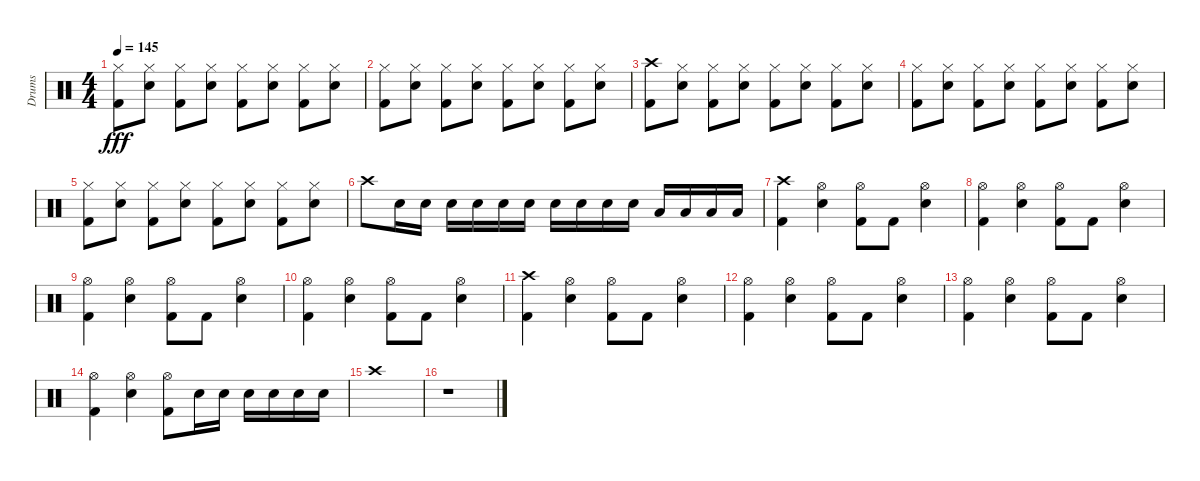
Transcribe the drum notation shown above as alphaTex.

\track ("Drums" "Drums") {instrument percussion}
\staff {score}
\articulation defaults
\ts (4 4)
\tempo 145
\clef neutral
\ks c
("Hi-Hat (closed)" "Kick (hit) 2").8{dy fff} ("Hi-Hat (closed)" "Electric Snare (hit)").8 ("Hi-Hat (closed)" "Kick (hit) 2").8 ("Hi-Hat (closed)" "Electric Snare (hit)").8 ("Hi-Hat (closed)" "Kick (hit) 2").8 ("Hi-Hat (closed)" "Electric Snare (hit)").8 ("Hi-Hat (closed)" "Kick (hit) 2").8 ("Hi-Hat (closed)" "Electric Snare (hit)").8 |
("Hi-Hat (closed)" "Kick (hit) 2").8 ("Hi-Hat (closed)" "Electric Snare (hit)").8 ("Hi-Hat (closed)" "Kick (hit) 2").8 ("Hi-Hat (closed)" "Electric Snare (hit)").8 ("Hi-Hat (closed)" "Kick (hit) 2").8 ("Hi-Hat (closed)" "Electric Snare (hit)").8 ("Hi-Hat (closed)" "Kick (hit) 2").8 ("Hi-Hat (closed)" "Electric Snare (hit)").8 |
("Crash high (hit)" "Kick (hit) 2").8 ("Hi-Hat (closed)" "Electric Snare (hit)").8 ("Hi-Hat (closed)" "Kick (hit) 2").8 ("Hi-Hat (closed)" "Electric Snare (hit)").8 ("Hi-Hat (closed)" "Kick (hit) 2").8 ("Hi-Hat (closed)" "Electric Snare (hit)").8 ("Hi-Hat (closed)" "Kick (hit) 2").8 ("Hi-Hat (closed)" "Electric Snare (hit)").8 |
("Hi-Hat (closed)" "Kick (hit) 2").8 ("Hi-Hat (closed)" "Electric Snare (hit)").8 ("Hi-Hat (closed)" "Kick (hit) 2").8 ("Hi-Hat (closed)" "Electric Snare (hit)").8 ("Hi-Hat (closed)" "Kick (hit) 2").8 ("Hi-Hat (closed)" "Electric Snare (hit)").8 ("Hi-Hat (closed)" "Kick (hit) 2").8 ("Hi-Hat (closed)" "Electric Snare (hit)").8 |
("Hi-Hat (closed)" "Kick (hit) 2").8 ("Hi-Hat (closed)" "Electric Snare (hit)").8 ("Hi-Hat (closed)" "Kick (hit) 2").8 ("Hi-Hat (closed)" "Electric Snare (hit)").8 ("Hi-Hat (closed)" "Kick (hit) 2").8 ("Hi-Hat (closed)" "Electric Snare (hit)").8 ("Hi-Hat (closed)" "Kick (hit) 2").8 ("Hi-Hat (closed)" "Electric Snare (hit)").8 |
"Crash high (hit)".8 "Electric Snare (hit)".16 "Electric Snare (hit)".16 "Electric Snare (hit)".16 "Electric Snare (hit)".16 "Electric Snare (hit)".16 "Electric Snare (hit)".16 "Electric Snare (hit)".16 "Electric Snare (hit)".16 "Electric Snare (hit)".16 "Electric Snare (hit)".16 "Low Tom (hit)".16 "Low Tom (hit)".16 "Low Tom (hit)".16 "Low Tom (hit)".16 |
("Crash high (hit)" "Kick (hit) 2").4 ("Hi-Hat (open)" "Electric Snare (hit)").4 ("Hi-Hat (open)" "Kick (hit) 2").8 "Kick (hit) 2".8 ("Hi-Hat (open)" "Electric Snare (hit)").4 |
("Hi-Hat (open)" "Kick (hit) 2").4 ("Hi-Hat (open)" "Electric Snare (hit)").4 ("Hi-Hat (open)" "Kick (hit) 2").8 "Kick (hit) 2".8 ("Hi-Hat (open)" "Electric Snare (hit)").4 |
("Hi-Hat (open)" "Kick (hit) 2").4 ("Hi-Hat (open)" "Electric Snare (hit)").4 ("Hi-Hat (open)" "Kick (hit) 2").8 "Kick (hit) 2".8 ("Hi-Hat (open)" "Electric Snare (hit)").4 |
("Hi-Hat (open)" "Kick (hit) 2").4 ("Hi-Hat (open)" "Electric Snare (hit)").4 ("Hi-Hat (open)" "Kick (hit) 2").8 "Kick (hit) 2".8 ("Hi-Hat (open)" "Electric Snare (hit)").4 |
("Crash high (hit)" "Kick (hit) 2").4 ("Hi-Hat (open)" "Electric Snare (hit)").4 ("Hi-Hat (open)" "Kick (hit) 2").8 "Kick (hit) 2".8 ("Hi-Hat (open)" "Electric Snare (hit)").4 |
("Hi-Hat (open)" "Kick (hit) 2").4 ("Hi-Hat (open)" "Electric Snare (hit)").4 ("Hi-Hat (open)" "Kick (hit) 2").8 "Kick (hit) 2".8 ("Hi-Hat (open)" "Electric Snare (hit)").4 |
("Hi-Hat (open)" "Kick (hit) 2").4 ("Hi-Hat (open)" "Electric Snare (hit)").4 ("Hi-Hat (open)" "Kick (hit) 2").8 "Kick (hit) 2".8 ("Hi-Hat (open)" "Electric Snare (hit)").4 |
("Hi-Hat (open)" "Kick (hit) 2").4 ("Hi-Hat (open)" "Electric Snare (hit)").4 ("Hi-Hat (open)" "Kick (hit) 2").8 "Electric Snare (hit)".16 "Electric Snare (hit)".16 "Electric Snare (hit)".16 "Electric Snare (hit)".16 "Electric Snare (hit)".16 "Electric Snare (hit)".16 |
"Crash high (hit)".1 |
r.1
